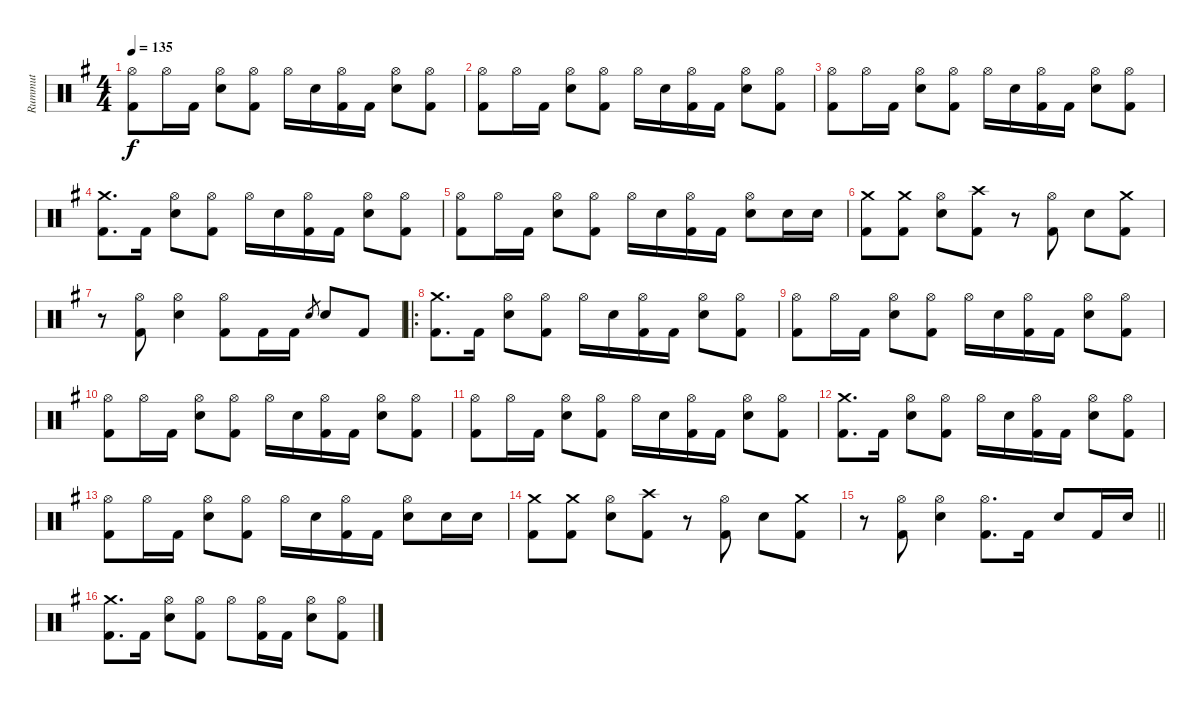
\track ("Rummut" "Rummut") {instrument percussion}
\staff {score}
\articulation defaults
\ts (4 4)
\tempo 135
\clef neutral
\ks g
("Hi-Hat (open)" "Kick (hit) 2").8{dy f} "Hi-Hat (open)".16 "Kick (hit) 2".16 ("Hi-Hat (open)" "Snare (hit) 2").8 ("Hi-Hat (open)" "Kick (hit) 2").8 "Hi-Hat (open)".16 "Snare (hit) 2".16 ("Hi-Hat (open)" "Kick (hit) 2").16 "Kick (hit) 2".16 ("Hi-Hat (open)" "Snare (hit) 2").8 ("Hi-Hat (open)" "Kick (hit) 2").8 |
("Hi-Hat (open)" "Kick (hit) 2").8 "Hi-Hat (open)".16 "Kick (hit) 2".16 ("Hi-Hat (open)" "Snare (hit) 2").8 ("Hi-Hat (open)" "Kick (hit) 2").8 "Hi-Hat (open)".16 "Snare (hit) 2".16 ("Hi-Hat (open)" "Kick (hit) 2").16 "Kick (hit) 2".16 ("Hi-Hat (open)" "Snare (hit) 2").8 ("Hi-Hat (open)" "Kick (hit) 2").8 |
("Hi-Hat (open)" "Kick (hit) 2").8 "Hi-Hat (open)".16 "Kick (hit) 2".16 ("Hi-Hat (open)" "Snare (hit) 2").8 ("Hi-Hat (open)" "Kick (hit) 2").8 "Hi-Hat (open)".16 "Snare (hit) 2".16 ("Hi-Hat (open)" "Kick (hit) 2").16 "Kick (hit) 2".16 ("Hi-Hat (open)" "Snare (hit) 2").8 ("Hi-Hat (open)" "Kick (hit) 2").8 |
("Crash medium (hit)" "Kick (hit) 2").8{d} "Kick (hit) 2".16 ("Hi-Hat (open)" "Snare (hit) 2").8 ("Hi-Hat (open)" "Kick (hit) 2").8 "Hi-Hat (open)".16 "Snare (hit) 2".16 ("Hi-Hat (open)" "Kick (hit) 2").16 "Kick (hit) 2".16 ("Hi-Hat (open)" "Snare (hit) 2").8 ("Hi-Hat (open)" "Kick (hit) 2").8 |
("Hi-Hat (open)" "Kick (hit) 2").8 "Hi-Hat (open)".16 "Kick (hit) 2".16 ("Hi-Hat (open)" "Snare (hit) 2").8 ("Hi-Hat (open)" "Kick (hit) 2").8 "Hi-Hat (open)".16 "Snare (hit) 2".16 ("Hi-Hat (open)" "Kick (hit) 2").16 "Kick (hit) 2".16 ("Hi-Hat (open)" "Snare (hit) 2").8 "Snare (hit) 2".16 "Snare (hit) 2".16 |
("Crash medium (hit)" "Kick (hit) 2").8 ("Crash medium (hit)" "Kick (hit) 2").8 ("Hi-Hat (open)" "Snare (hit) 2").8 ("Crash high (hit)" "Kick (hit) 2").8 r.8 ("Hi-Hat (open)" "Kick (hit) 2").8 "Snare (hit) 2".8 ("Crash medium (hit)" "Kick (hit) 2").8 |
r.8 ("Hi-Hat (open)" "Kick (hit) 2").8 ("Hi-Hat (open)" "Snare (hit) 2").4 ("Hi-Hat (open)" "Kick (hit) 2").8 "Kick (hit) 2".16 "Kick (hit) 2".16 "Snare (hit) 2".8{gr} "Snare (hit) 2".8 "Kick (hit) 2".8 |
\ro
("Crash medium (hit)" "Kick (hit) 2").8{d} "Kick (hit) 2".16 ("Hi-Hat (open)" "Snare (hit) 2").8 ("Hi-Hat (open)" "Kick (hit) 2").8 "Hi-Hat (open)".16 "Snare (hit) 2".16 ("Hi-Hat (open)" "Kick (hit) 2").16 "Kick (hit) 2".16 ("Hi-Hat (open)" "Snare (hit) 2").8 ("Hi-Hat (open)" "Kick (hit) 2").8 |
("Hi-Hat (open)" "Kick (hit) 2").8 "Hi-Hat (open)".16 "Kick (hit) 2".16 ("Hi-Hat (open)" "Snare (hit) 2").8 ("Hi-Hat (open)" "Kick (hit) 2").8 "Hi-Hat (open)".16 "Snare (hit) 2".16 ("Hi-Hat (open)" "Kick (hit) 2").16 "Kick (hit) 2".16 ("Hi-Hat (open)" "Snare (hit) 2").8 ("Hi-Hat (open)" "Kick (hit) 2").8 |
("Hi-Hat (open)" "Kick (hit) 2").8 "Hi-Hat (open)".16 "Kick (hit) 2".16 ("Hi-Hat (open)" "Snare (hit) 2").8 ("Hi-Hat (open)" "Kick (hit) 2").8 "Hi-Hat (open)".16 "Snare (hit) 2".16 ("Hi-Hat (open)" "Kick (hit) 2").16 "Kick (hit) 2".16 ("Hi-Hat (open)" "Snare (hit) 2").8 ("Hi-Hat (open)" "Kick (hit) 2").8 |
("Hi-Hat (open)" "Kick (hit) 2").8 "Hi-Hat (open)".16 "Kick (hit) 2".16 ("Hi-Hat (open)" "Snare (hit) 2").8 ("Hi-Hat (open)" "Kick (hit) 2").8 "Hi-Hat (open)".16 "Snare (hit) 2".16 ("Hi-Hat (open)" "Kick (hit) 2").16 "Kick (hit) 2".16 ("Hi-Hat (open)" "Snare (hit) 2").8 ("Hi-Hat (open)" "Kick (hit) 2").8 |
("Crash medium (hit)" "Kick (hit) 2").8{d} "Kick (hit) 2".16 ("Hi-Hat (open)" "Snare (hit) 2").8 ("Hi-Hat (open)" "Kick (hit) 2").8 "Hi-Hat (open)".16 "Snare (hit) 2".16 ("Hi-Hat (open)" "Kick (hit) 2").16 "Kick (hit) 2".16 ("Hi-Hat (open)" "Snare (hit) 2").8 ("Hi-Hat (open)" "Kick (hit) 2").8 |
("Hi-Hat (open)" "Kick (hit) 2").8 "Hi-Hat (open)".16 "Kick (hit) 2".16 ("Hi-Hat (open)" "Snare (hit) 2").8 ("Hi-Hat (open)" "Kick (hit) 2").8 "Hi-Hat (open)".16 "Snare (hit) 2".16 ("Hi-Hat (open)" "Kick (hit) 2").16 "Kick (hit) 2".16 ("Hi-Hat (open)" "Snare (hit) 2").8 "Snare (hit) 2".16 "Snare (hit) 2".16 |
("Crash medium (hit)" "Kick (hit) 2").8 ("Crash medium (hit)" "Kick (hit) 2").8 ("Hi-Hat (open)" "Snare (hit) 2").8 ("Crash high (hit)" "Kick (hit) 2").8 r.8 ("Hi-Hat (open)" "Kick (hit) 2").8 "Snare (hit) 2".8 ("Crash medium (hit)" "Kick (hit) 2").8 |
\barLineRight lightlight
r.8 ("Hi-Hat (open)" "Kick (hit) 2").8 ("Hi-Hat (open)" "Snare (hit) 2").4 ("Hi-Hat (open)" "Kick (hit) 2").8{d} "Kick (hit) 2".16 "Snare (hit) 2".8 "Kick (hit) 2".16 "Snare (hit) 2".16 |
("Crash medium (hit)" "Kick (hit) 2").8{d} "Kick (hit) 2".16 ("Hi-Hat (open)" "Snare (hit) 2").8 ("Hi-Hat (open)" "Kick (hit) 2").8 "Hi-Hat (open)".8 ("Hi-Hat (open)" "Kick (hit) 2").16 "Kick (hit) 2".16 ("Hi-Hat (open)" "Snare (hit) 2").8 ("Hi-Hat (open)" "Kick (hit) 2").8
